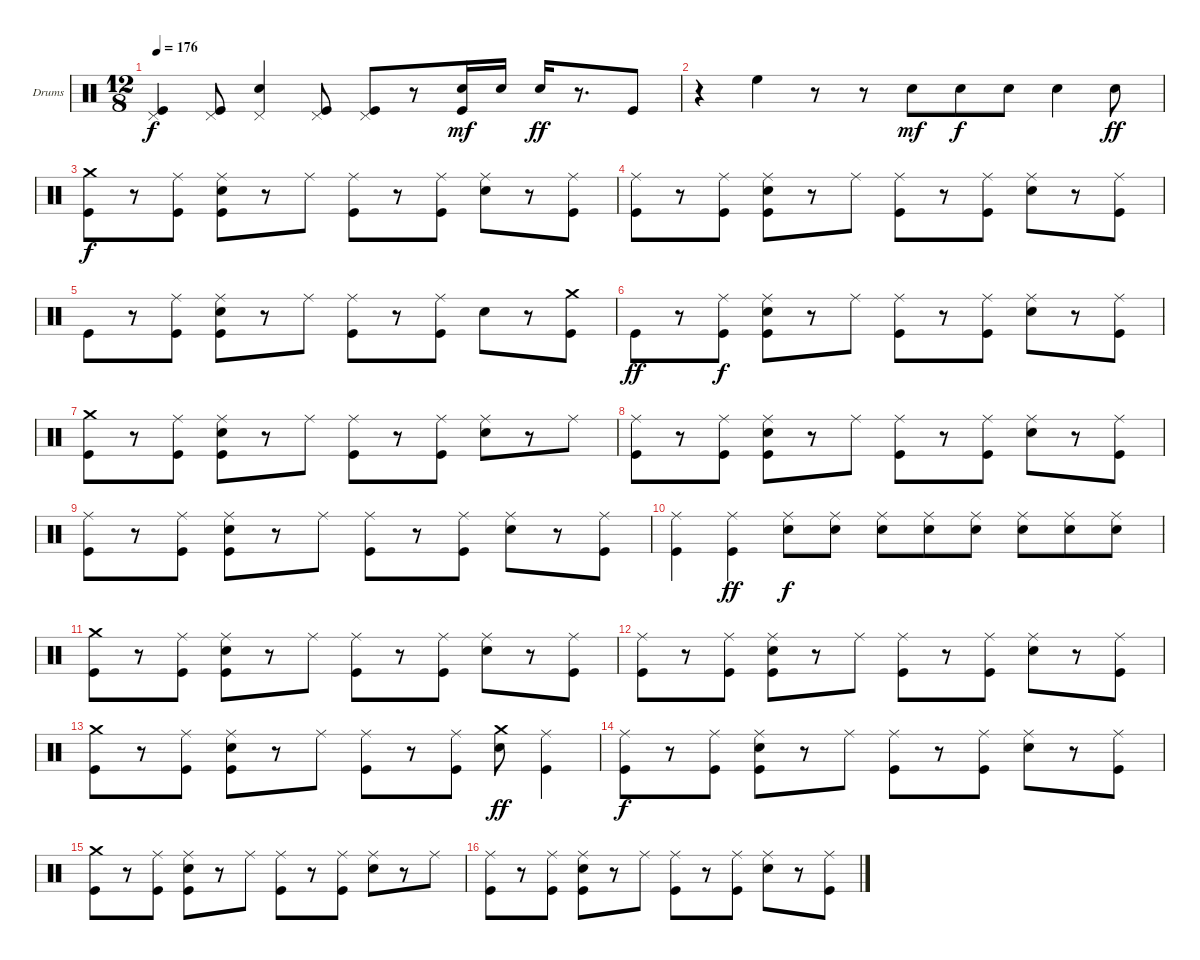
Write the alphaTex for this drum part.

\defaultSystemsLayout 4
\bracketExtendMode groupsimilarinstruments
\firstSystemTrackNameOrientation horizontal
\otherSystemsTrackNameOrientation horizontal
\track ("Drumkit" "Drums") {instrument percussion}
\staff {score}
\articulation defaults
\ts (12 8)
\tempo 176
\clef neutral
\scale
0.333333
\ks c
("Pedal Hi-Hat (hit)" "Kick (hit)").4{dy f} ("Pedal Hi-Hat (hit)" "Kick (hit)").8 ("Snare (hit) 2" "Pedal Hi-Hat (hit)").4 ("Pedal Hi-Hat (hit)" "Kick (hit)").8 ("Pedal Hi-Hat (hit)" "Kick (hit)").8 r.8 ("Snare (hit) 2" "Kick (hit)").16{dy mf} "Snare (hit) 2".16 "Snare (hit) 2".16{dy ff} r.8{d} "Kick (hit)".8 |
\scale
0.333333 r.4 "High Floor Tom (hit)".4 r.8 r.8 "Snare (hit) 2".8{dy mf} "Snare (hit) 2".8{dy f} "Snare (hit) 2".8 "Snare (hit) 2".4 "Snare (hit) 2".8{dy ff} |
\scale
0.333333 ("Crash medium (hit)" "Kick (hit)").8{dy f} r.8 ("Ride (middle)" "Kick (hit)").8 ("Ride (middle)" "Snare (hit) 2" "Kick (hit)").8 r.8 "Ride (middle)".8 ("Ride (middle)" "Kick (hit)").8 r.8 ("Ride (middle)" "Kick (hit)").8 ("Ride (middle)" "Snare (hit) 2").8 r.8 ("Ride (middle)" "Kick (hit)").8 |
\scale
0.333333 ("Ride (middle)" "Kick (hit)").8 r.8 ("Ride (middle)" "Kick (hit)").8 ("Ride (middle)" "Snare (hit) 2" "Kick (hit)").8 r.8 "Ride (middle)".8 ("Ride (middle)" "Kick (hit)").8 r.8 ("Ride (middle)" "Kick (hit)").8 ("Ride (middle)" "Snare (hit) 2").8 r.8 ("Ride (middle)" "Kick (hit)").8 |
\scale
0.333333 "Kick (hit)".8 r.8 ("Ride (middle)" "Kick (hit)").8 ("Ride (middle)" "Snare (hit) 2" "Kick (hit)").8 r.8 "Ride (middle)".8 ("Ride (middle)" "Kick (hit)").8 r.8 ("Ride (middle)" "Kick (hit)").8 "Snare (hit) 2".8 r.8 ("Crash medium (hit)" "Kick (hit)").8 |
\scale
0.333333 "Kick (hit)".8{dy ff} r.8 ("Ride (middle)" "Kick (hit)").8{dy f} ("Ride (middle)" "Snare (hit) 2" "Kick (hit)").8 r.8 "Ride (middle)".8 ("Ride (middle)" "Kick (hit)").8 r.8 ("Ride (middle)" "Kick (hit)").8 ("Ride (middle)" "Snare (hit) 2").8 r.8 ("Ride (middle)" "Kick (hit)").8 |
\scale
0.333333 ("Crash medium (hit)" "Kick (hit)").8 r.8 ("Ride (middle)" "Kick (hit)").8 ("Ride (middle)" "Snare (hit) 2" "Kick (hit)").8 r.8 "Ride (middle)".8 ("Ride (middle)" "Kick (hit)").8 r.8 ("Ride (middle)" "Kick (hit)").8 ("Ride (middle)" "Snare (hit) 2").8 r.8 "Ride (middle)".8 |
\scale
0.333333 ("Ride (middle)" "Kick (hit)").8 r.8 ("Ride (middle)" "Kick (hit)").8 ("Ride (middle)" "Snare (hit) 2" "Kick (hit)").8 r.8 "Ride (middle)".8 ("Ride (middle)" "Kick (hit)").8 r.8 ("Ride (middle)" "Kick (hit)").8 ("Ride (middle)" "Snare (hit) 2").8 r.8 ("Ride (middle)" "Kick (hit)").8 |
\scale
0.333333 ("Ride (middle)" "Kick (hit)").8 r.8 ("Ride (middle)" "Kick (hit)").8 ("Ride (middle)" "Snare (hit) 2" "Kick (hit)").8 r.8 "Ride (middle)".8 ("Ride (middle)" "Kick (hit)").8 r.8 ("Ride (middle)" "Kick (hit)").8 ("Ride (middle)" "Snare (hit) 2").8 r.8 ("Ride (middle)" "Kick (hit)").8 |
\scale
0.333333 ("Ride (middle)" "Kick (hit)").4 ("Ride (middle)" "Kick (hit)").4{dy ff} ("Ride (middle)" "Snare (hit) 2").8{dy f} ("Ride (middle)" "Snare (hit) 2").8 ("Ride (middle)" "Snare (hit) 2").8 ("Ride (middle)" "Snare (hit) 2").8 ("Ride (middle)" "Snare (hit) 2").8 ("Ride (middle)" "Snare (hit) 2").8 ("Ride (middle)" "Snare (hit) 2").8 ("Ride (middle)" "Snare (hit) 2").8 |
\scale
0.333333 ("Crash medium (hit)" "Kick (hit)").8 r.8 ("Ride (middle)" "Kick (hit)").8 ("Ride (middle)" "Snare (hit) 2" "Kick (hit)").8 r.8 "Ride (middle)".8 ("Ride (middle)" "Kick (hit)").8 r.8 ("Ride (middle)" "Kick (hit)").8 ("Ride (middle)" "Snare (hit) 2").8 r.8 ("Ride (middle)" "Kick (hit)").8 |
\scale
0.333333 ("Ride (middle)" "Kick (hit)").8 r.8 ("Ride (middle)" "Kick (hit)").8 ("Ride (middle)" "Snare (hit) 2" "Kick (hit)").8 r.8 "Ride (middle)".8 ("Ride (middle)" "Kick (hit)").8 r.8 ("Ride (middle)" "Kick (hit)").8 ("Ride (middle)" "Snare (hit) 2").8 r.8 ("Ride (middle)" "Kick (hit)").8 |
\scale
0.333333 ("Crash medium (hit)" "Kick (hit)").8 r.8 ("Ride (middle)" "Kick (hit)").8 ("Ride (middle)" "Snare (hit) 2" "Kick (hit)").8 r.8 "Ride (middle)".8 ("Ride (middle)" "Kick (hit)").8 r.8 ("Ride (middle)" "Kick (hit)").8 ("Crash medium (hit)" "Snare (hit) 2").8{dy ff} ("Ride (middle)" "Kick (hit)").4 |
\scale
0.333333 ("Ride (middle)" "Kick (hit)").8{dy f} r.8 ("Ride (middle)" "Kick (hit)").8 ("Ride (middle)" "Snare (hit) 2" "Kick (hit)").8 r.8 "Ride (middle)".8 ("Ride (middle)" "Kick (hit)").8 r.8 ("Ride (middle)" "Kick (hit)").8 ("Ride (middle)" "Snare (hit) 2").8 r.8 ("Ride (middle)" "Kick (hit)").8 |
\scale
0.333333 ("Crash medium (hit)" "Kick (hit)").8 r.8 ("Ride (middle)" "Kick (hit)").8 ("Ride (middle)" "Snare (hit) 2" "Kick (hit)").8 r.8 "Ride (middle)".8 ("Ride (middle)" "Kick (hit)").8 r.8 ("Ride (middle)" "Kick (hit)").8 ("Ride (middle)" "Snare (hit) 2").8 r.8 "Ride (middle)".8 |
\scale
0.333333 ("Ride (middle)" "Kick (hit)").8 r.8 ("Ride (middle)" "Kick (hit)").8 ("Ride (middle)" "Snare (hit) 2" "Kick (hit)").8 r.8 "Ride (middle)".8 ("Ride (middle)" "Kick (hit)").8 r.8 ("Ride (middle)" "Kick (hit)").8 ("Ride (middle)" "Snare (hit) 2").8 r.8 ("Ride (middle)" "Kick (hit)").8
